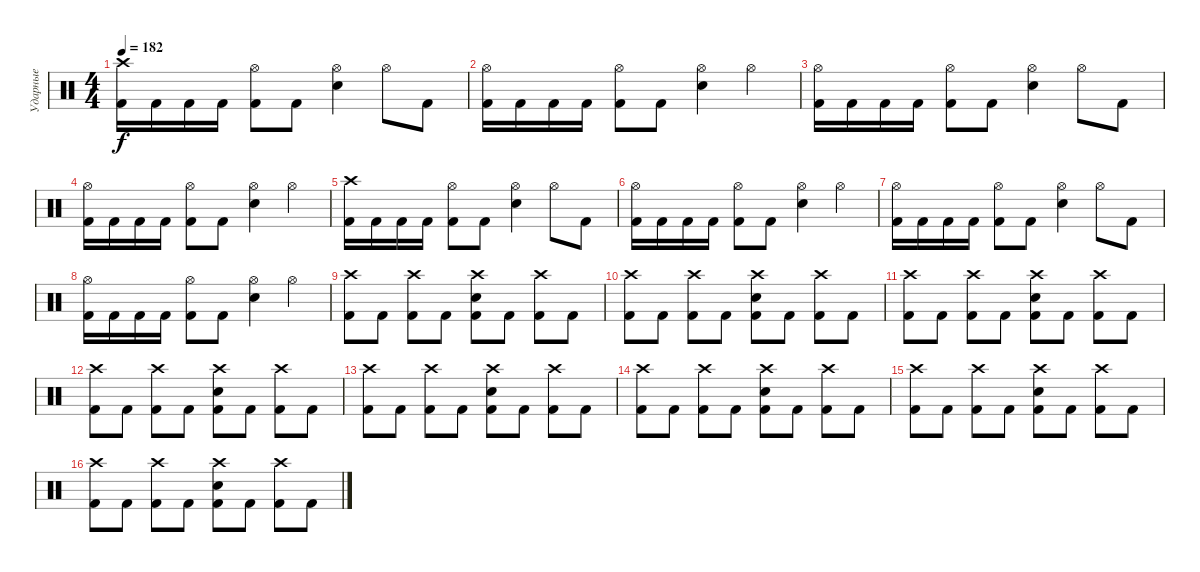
\track ("Ударные" "Ударные") {instrument percussion}
\staff {score}
\articulation defaults
\ts (4 4)
\tempo 182
\clef neutral
\ks c
("Crash high (hit)" "Kick (hit) 2").16{dy f} "Kick (hit) 2".16 "Kick (hit) 2".16 "Kick (hit) 2".16 ("Hi-Hat (open)" "Kick (hit) 2").8 "Kick (hit) 2".8 ("Hi-Hat (open)" "Electric Snare (hit)").4 "Hi-Hat (open)".8 "Kick (hit) 2".8 |
("Hi-Hat (open)" "Kick (hit) 2").16 "Kick (hit) 2".16 "Kick (hit) 2".16 "Kick (hit) 2".16 ("Hi-Hat (open)" "Kick (hit) 2").8 "Kick (hit) 2".8 ("Hi-Hat (open)" "Electric Snare (hit)").4 "Hi-Hat (open)".4 |
("Hi-Hat (open)" "Kick (hit) 2").16 "Kick (hit) 2".16 "Kick (hit) 2".16 "Kick (hit) 2".16 ("Hi-Hat (open)" "Kick (hit) 2").8 "Kick (hit) 2".8 ("Hi-Hat (open)" "Electric Snare (hit)").4 "Hi-Hat (open)".8 "Kick (hit) 2".8 |
("Hi-Hat (open)" "Kick (hit) 2").16 "Kick (hit) 2".16 "Kick (hit) 2".16 "Kick (hit) 2".16 ("Hi-Hat (open)" "Kick (hit) 2").8 "Kick (hit) 2".8 ("Hi-Hat (open)" "Electric Snare (hit)").4 "Hi-Hat (open)".4 |
("Crash high (hit)" "Kick (hit) 2").16 "Kick (hit) 2".16 "Kick (hit) 2".16 "Kick (hit) 2".16 ("Hi-Hat (open)" "Kick (hit) 2").8 "Kick (hit) 2".8 ("Hi-Hat (open)" "Electric Snare (hit)").4 "Hi-Hat (open)".8 "Kick (hit) 2".8 |
("Hi-Hat (open)" "Kick (hit) 2").16 "Kick (hit) 2".16 "Kick (hit) 2".16 "Kick (hit) 2".16 ("Hi-Hat (open)" "Kick (hit) 2").8 "Kick (hit) 2".8 ("Hi-Hat (open)" "Electric Snare (hit)").4 "Hi-Hat (open)".4 |
("Hi-Hat (open)" "Kick (hit) 2").16 "Kick (hit) 2".16 "Kick (hit) 2".16 "Kick (hit) 2".16 ("Hi-Hat (open)" "Kick (hit) 2").8 "Kick (hit) 2".8 ("Hi-Hat (open)" "Electric Snare (hit)").4 "Hi-Hat (open)".8 "Kick (hit) 2".8 |
("Hi-Hat (open)" "Kick (hit) 2").16 "Kick (hit) 2".16 "Kick (hit) 2".16 "Kick (hit) 2".16 ("Hi-Hat (open)" "Kick (hit) 2").8 "Kick (hit) 2".8 ("Hi-Hat (open)" "Electric Snare (hit)").4 "Hi-Hat (open)".4 |
("Crash high (hit)" "Kick (hit) 2").8 "Kick (hit) 2".8 ("Crash high (hit)" "Kick (hit) 2").8 "Kick (hit) 2".8 ("Crash high (hit)" "Electric Snare (hit)" "Kick (hit) 2").8 "Kick (hit) 2".8 ("Crash high (hit)" "Kick (hit) 2").8 "Kick (hit) 2".8 |
("Crash high (hit)" "Kick (hit) 2").8 "Kick (hit) 2".8 ("Crash high (hit)" "Kick (hit) 2").8 "Kick (hit) 2".8 ("Crash high (hit)" "Electric Snare (hit)" "Kick (hit) 2").8 "Kick (hit) 2".8 ("Crash high (hit)" "Kick (hit) 2").8 "Kick (hit) 2".8 |
("Crash high (hit)" "Kick (hit) 2").8 "Kick (hit) 2".8 ("Crash high (hit)" "Kick (hit) 2").8 "Kick (hit) 2".8 ("Crash high (hit)" "Electric Snare (hit)" "Kick (hit) 2").8 "Kick (hit) 2".8 ("Crash high (hit)" "Kick (hit) 2").8 "Kick (hit) 2".8 |
("Crash high (hit)" "Kick (hit) 2").8 "Kick (hit) 2".8 ("Crash high (hit)" "Kick (hit) 2").8 "Kick (hit) 2".8 ("Crash high (hit)" "Electric Snare (hit)" "Kick (hit) 2").8 "Kick (hit) 2".8 ("Crash high (hit)" "Kick (hit) 2").8 "Kick (hit) 2".8 |
("Crash high (hit)" "Kick (hit) 2").8 "Kick (hit) 2".8 ("Crash high (hit)" "Kick (hit) 2").8 "Kick (hit) 2".8 ("Crash high (hit)" "Electric Snare (hit)" "Kick (hit) 2").8 "Kick (hit) 2".8 ("Crash high (hit)" "Kick (hit) 2").8 "Kick (hit) 2".8 |
("Crash high (hit)" "Kick (hit) 2").8 "Kick (hit) 2".8 ("Crash high (hit)" "Kick (hit) 2").8 "Kick (hit) 2".8 ("Crash high (hit)" "Electric Snare (hit)" "Kick (hit) 2").8 "Kick (hit) 2".8 ("Crash high (hit)" "Kick (hit) 2").8 "Kick (hit) 2".8 |
("Crash high (hit)" "Kick (hit) 2").8 "Kick (hit) 2".8 ("Crash high (hit)" "Kick (hit) 2").8 "Kick (hit) 2".8 ("Crash high (hit)" "Electric Snare (hit)" "Kick (hit) 2").8 "Kick (hit) 2".8 ("Crash high (hit)" "Kick (hit) 2").8 "Kick (hit) 2".8 |
("Crash high (hit)" "Kick (hit) 2").8 "Kick (hit) 2".8 ("Crash high (hit)" "Kick (hit) 2").8 "Kick (hit) 2".8 ("Crash high (hit)" "Electric Snare (hit)" "Kick (hit) 2").8 "Kick (hit) 2".8 ("Crash high (hit)" "Kick (hit) 2").8 "Kick (hit) 2".8
